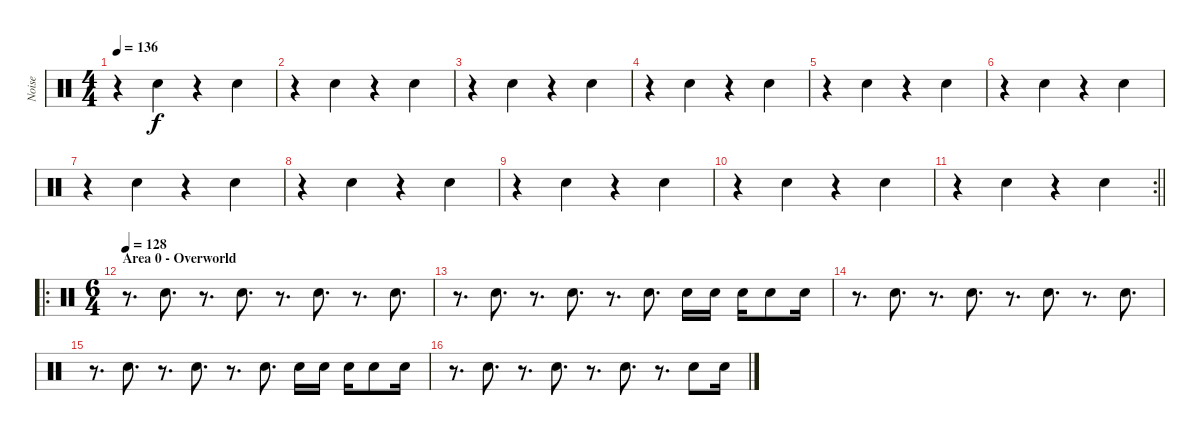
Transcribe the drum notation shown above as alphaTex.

\track ("Noise" "Noise") {instrument percussion}
\staff {score}
\articulation defaults
\ts (4 4)
\tempo 136
\clef neutral
\ks c
r.4{dy f} "Snare (hit) 2".4 r.4 "Snare (hit) 2".4 |
r.4 "Snare (hit) 2".4 r.4 "Snare (hit) 2".4 |
r.4 "Snare (hit) 2".4 r.4 "Snare (hit) 2".4 |
r.4 "Snare (hit) 2".4 r.4 "Snare (hit) 2".4 |
r.4 "Snare (hit) 2".4 r.4 "Snare (hit) 2".4 |
r.4 "Snare (hit) 2".4 r.4 "Snare (hit) 2".4 |
r.4 "Snare (hit) 2".4 r.4 "Snare (hit) 2".4 |
r.4 "Snare (hit) 2".4 r.4 "Snare (hit) 2".4 |
r.4 "Snare (hit) 2".4 r.4 "Snare (hit) 2".4 |
r.4 "Snare (hit) 2".4 r.4 "Snare (hit) 2".4 |
\rc 2
\barLineRight lightlight
r.4 "Snare (hit) 2".4 r.4 "Snare (hit) 2".4 |
\ro
\ts (6 4)
\section ("" "Area 0 - Overworld")
\tempo 128
r.8{d volume 13} "Snare (hit) 2".8{d} r.8{d} "Snare (hit) 2".8{d} r.8{d} "Snare (hit) 2".8{d} r.8{d} "Snare (hit) 2".8{d} |
r.8{d} "Snare (hit) 2".8{d} r.8{d} "Snare (hit) 2".8{d} r.8{d} "Snare (hit) 2".8{d} "Snare (hit) 2".16 "Snare (hit) 2".16 "Snare (hit) 2".16 "Snare (hit) 2".8 "Snare (hit) 2".16 |
r.8{d} "Snare (hit) 2".8{d} r.8{d} "Snare (hit) 2".8{d} r.8{d} "Snare (hit) 2".8{d} r.8{d} "Snare (hit) 2".8{d} |
r.8{d} "Snare (hit) 2".8{d} r.8{d} "Snare (hit) 2".8{d} r.8{d} "Snare (hit) 2".8{d} "Snare (hit) 2".16 "Snare (hit) 2".16 "Snare (hit) 2".16 "Snare (hit) 2".8 "Snare (hit) 2".16 |
r.8{d} "Snare (hit) 2".8{d} r.8{d} "Snare (hit) 2".8{d} r.8{d} "Snare (hit) 2".8{d} r.8{d} "Snare (hit) 2".8 "Snare (hit) 2".16
